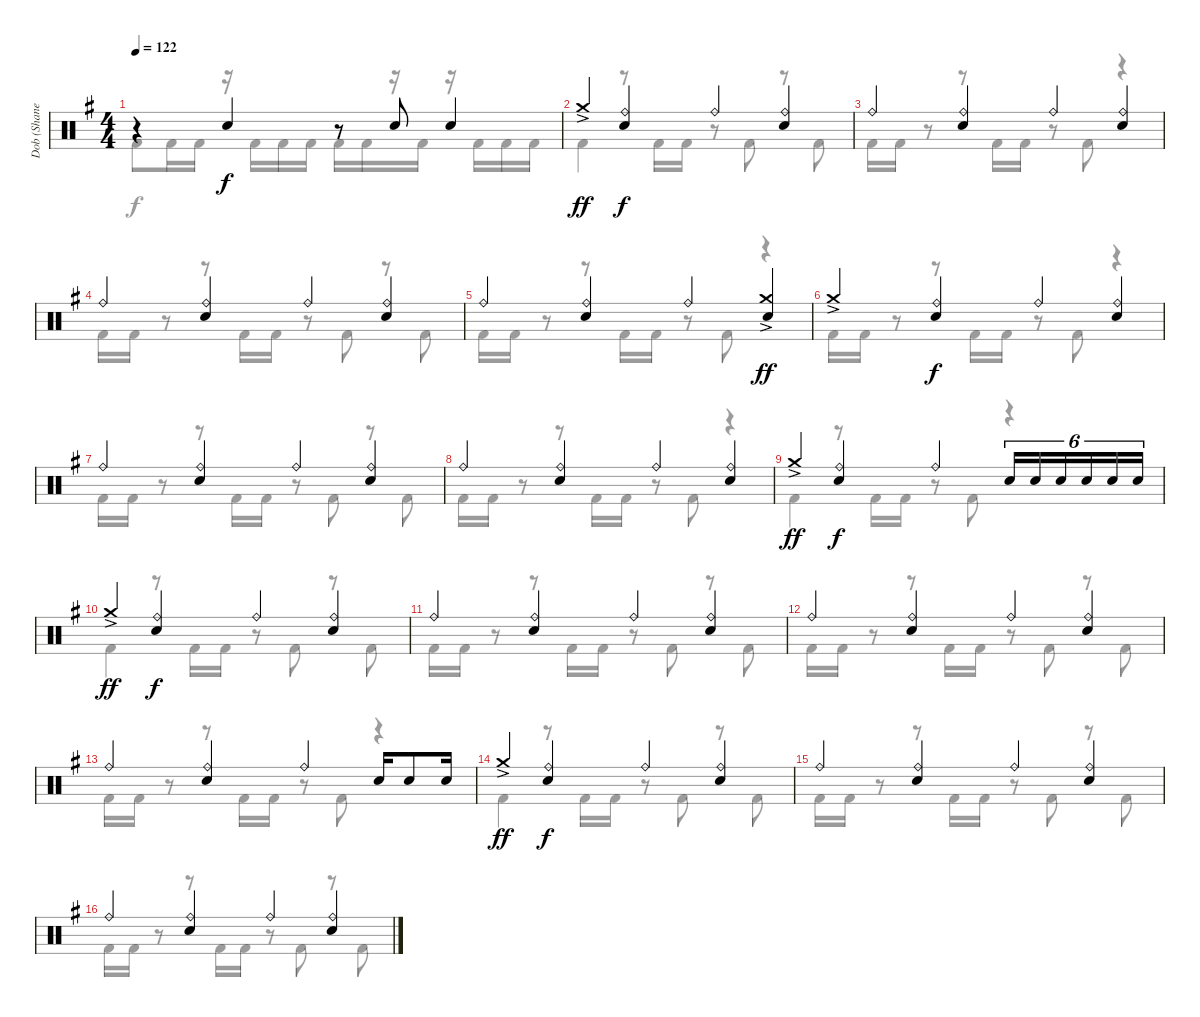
\track ("Dob (Shane Gaalaas)" "Dob (Shane") {instrument percussion}
\staff {score}
\articulation defaults
\voice
\ts (4 4)
\tempo 122
\clef neutral
\ks g
r.4{dy f} "Electric Snare (hit)".4 r.8 "Electric Snare (hit)".8 "Electric Snare (hit)".4 |
"Crash medium (hit)"{ac}.4{dy ff} ("Ride (bell)" "Electric Snare (hit)").4{dy f} "Ride (bell)".4 ("Ride (bell)" "Electric Snare (hit)").4 |
"Ride (bell)".4 ("Ride (bell)" "Electric Snare (hit)").4 "Ride (bell)".4 ("Ride (bell)" "Electric Snare (hit)").4 |
"Ride (bell)".4 ("Ride (bell)" "Electric Snare (hit)").4 "Ride (bell)".4 ("Ride (bell)" "Electric Snare (hit)").4 |
"Ride (bell)".4 ("Ride (bell)" "Electric Snare (hit)").4 "Ride (bell)".4 ("Crash medium (hit)"{ac} "Electric Snare (hit)").4{dy ff} |
"Crash medium (hit)"{ac}.4 ("Ride (bell)" "Electric Snare (hit)").4{dy f} "Ride (bell)".4 ("Ride (bell)" "Electric Snare (hit)").4 |
"Ride (bell)".4 ("Ride (bell)" "Electric Snare (hit)").4 "Ride (bell)".4 ("Ride (bell)" "Electric Snare (hit)").4 |
"Ride (bell)".4 ("Ride (bell)" "Electric Snare (hit)").4 "Ride (bell)".4 ("Ride (bell)" "Electric Snare (hit)").4 |
"Crash medium (hit)"{ac}.4{dy ff} ("Ride (bell)" "Electric Snare (hit)").4{dy f} "Ride (bell)".4 "Electric Snare (hit)".16{tu (6 4)} "Electric Snare (hit)".16{tu (6 4)} "Electric Snare (hit)".16{tu (6 4)} "Electric Snare (hit)".16{tu (6 4)} "Electric Snare (hit)".16{tu (6 4)} "Electric Snare (hit)".16{tu (6 4)} |
"Crash medium (hit)"{ac}.4{dy ff} ("Ride (bell)" "Electric Snare (hit)").4{dy f} "Ride (bell)".4 ("Ride (bell)" "Electric Snare (hit)").4 |
"Ride (bell)".4 ("Ride (bell)" "Electric Snare (hit)").4 "Ride (bell)".4 ("Ride (bell)" "Electric Snare (hit)").4 |
"Ride (bell)".4 ("Ride (bell)" "Electric Snare (hit)").4 "Ride (bell)".4 ("Ride (bell)" "Electric Snare (hit)").4 |
"Ride (bell)".4 ("Ride (bell)" "Electric Snare (hit)").4 "Ride (bell)".4 "Electric Snare (hit)".16 "Electric Snare (hit)".8 "Electric Snare (hit)".16 |
"Crash medium (hit)"{ac}.4{dy ff} ("Ride (bell)" "Electric Snare (hit)").4{dy f} "Ride (bell)".4 ("Ride (bell)" "Electric Snare (hit)").4 |
"Ride (bell)".4 ("Ride (bell)" "Electric Snare (hit)").4 "Ride (bell)".4 ("Ride (bell)" "Electric Snare (hit)").4 |
"Ride (bell)".4 ("Ride (bell)" "Electric Snare (hit)").4 "Ride (bell)".4 ("Ride (bell)" "Electric Snare (hit)").4
\voice
\clef neutral
\ottava regular
\simile none
\ks g "Kick (hit) 2".8{dy f} "Kick (hit) 2".16 "Kick (hit) 2".16
r.16 "Kick (hit) 2".16 "Kick (hit) 2".16 "Kick (hit) 2".16 "Kick (hit) 2".16 "Kick (hit) 2".16 r.16 "Kick (hit) 2".16 r.16 "Kick (hit) 2".16 "Kick (hit) 2".16 "Kick (hit) 2".16 |
"Kick (hit) 2".4 r.8 "Kick (hit) 2".16 "Kick (hit) 2".16 r.8 "Kick (hit) 2".8 r.8 "Kick (hit) 2".8 |
"Kick (hit) 2".16 "Kick (hit) 2".16 r.8 r.8 "Kick (hit) 2".16 "Kick (hit) 2".16 r.8 "Kick (hit) 2".8 r.4 |
"Kick (hit) 2".16 "Kick (hit) 2".16 r.8 r.8 "Kick (hit) 2".16 "Kick (hit) 2".16 r.8 "Kick (hit) 2".8 r.8 "Kick (hit) 2".8 |
"Kick (hit) 2".16 "Kick (hit) 2".16 r.8 r.8 "Kick (hit) 2".16 "Kick (hit) 2".16 r.8 "Kick (hit) 2".8 r.4 |
"Kick (hit) 2".16 "Kick (hit) 2".16 r.8 r.8 "Kick (hit) 2".16 "Kick (hit) 2".16 r.8 "Kick (hit) 2".8 r.4 |
"Kick (hit) 2".16 "Kick (hit) 2".16 r.8 r.8 "Kick (hit) 2".16 "Kick (hit) 2".16 r.8 "Kick (hit) 2".8 r.8 "Kick (hit) 2".8 |
"Kick (hit) 2".16 "Kick (hit) 2".16 r.8 r.8 "Kick (hit) 2".16 "Kick (hit) 2".16 r.8 "Kick (hit) 2".8 r.4 |
"Kick (hit) 2".4 r.8 "Kick (hit) 2".16 "Kick (hit) 2".16 r.8 "Kick (hit) 2".8 r.4 |
"Kick (hit) 2".4 r.8 "Kick (hit) 2".16 "Kick (hit) 2".16 r.8 "Kick (hit) 2".8 r.8 "Kick (hit) 2".8 |
"Kick (hit) 2".16 "Kick (hit) 2".16 r.8 r.8 "Kick (hit) 2".16 "Kick (hit) 2".16 r.8 "Kick (hit) 2".8 r.8 "Kick (hit) 2".8 |
"Kick (hit) 2".16 "Kick (hit) 2".16 r.8 r.8 "Kick (hit) 2".16 "Kick (hit) 2".16 r.8 "Kick (hit) 2".8 r.8 "Kick (hit) 2".8 |
"Kick (hit) 2".16 "Kick (hit) 2".16 r.8 r.8 "Kick (hit) 2".16 "Kick (hit) 2".16 r.8 "Kick (hit) 2".8 r.4 |
"Kick (hit) 2".4 r.8 "Kick (hit) 2".16 "Kick (hit) 2".16 r.8 "Kick (hit) 2".8 r.8 "Kick (hit) 2".8 |
"Kick (hit) 2".16 "Kick (hit) 2".16 r.8 r.8 "Kick (hit) 2".16 "Kick (hit) 2".16 r.8 "Kick (hit) 2".8 r.8 "Kick (hit) 2".8 |
"Kick (hit) 2".16 "Kick (hit) 2".16 r.8 r.8 "Kick (hit) 2".16 "Kick (hit) 2".16 r.8 "Kick (hit) 2".8 r.8 "Kick (hit) 2".8
